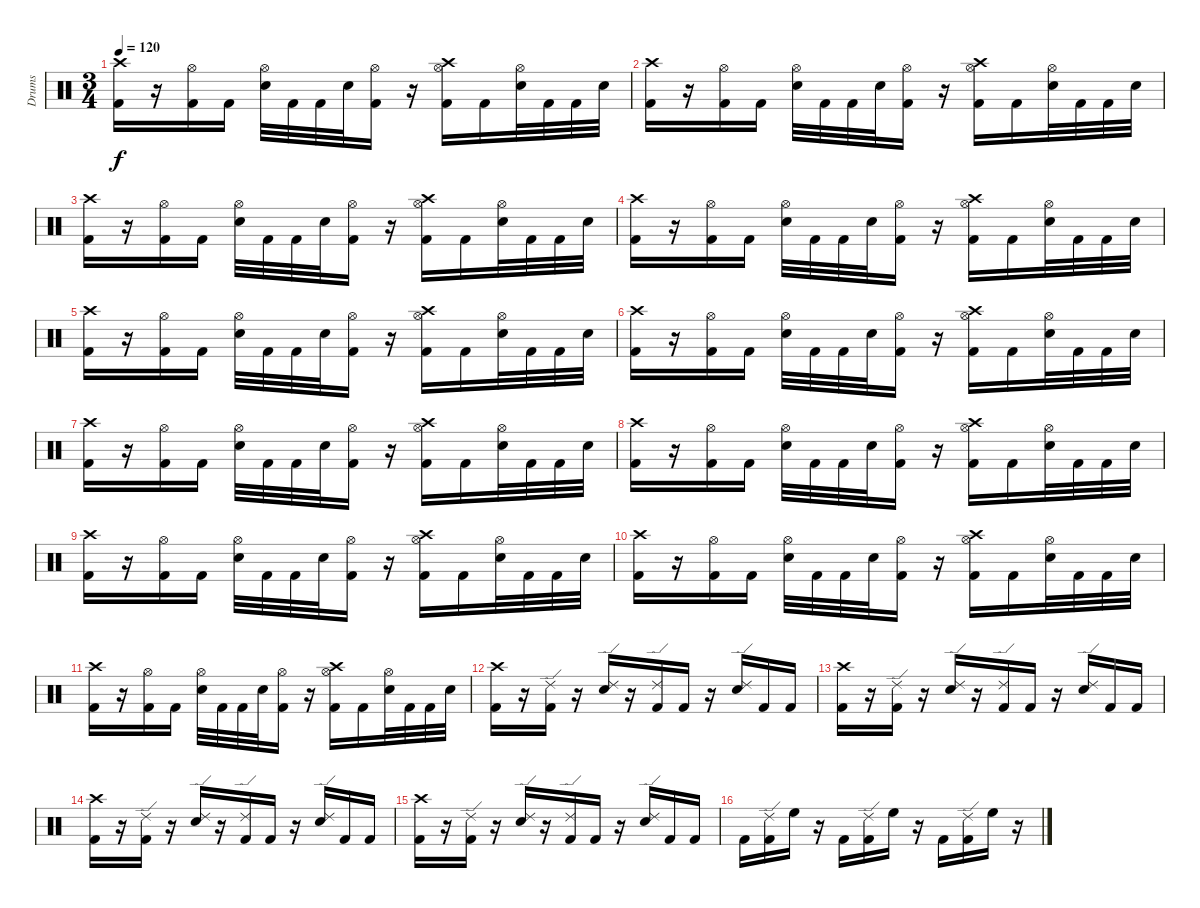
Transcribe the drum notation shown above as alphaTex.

\track ("Drums" "Drums") {instrument percussion}
\staff {score}
\articulation defaults
\ts (3 4)
\tempo 120
\clef neutral
\ks c
("Crash high (hit)" "Kick (hit) 2").16{dy f} r.16 ("Hi-Hat (open)" "Kick (hit) 2").16 "Kick (hit) 2".16 ("Hi-Hat (open)" "Electric Snare (hit)").32 "Kick (hit) 2".32 "Kick (hit) 2".32 "Electric Snare (hit)".32 ("Hi-Hat (open)" "Kick (hit) 2").16 r.16 ("Crash high (hit)" "Hi-Hat (open)" "Kick (hit) 2").16 "Kick (hit) 2".16 ("Hi-Hat (open)" "Electric Snare (hit)").32 "Kick (hit) 2".32 "Kick (hit) 2".32 "Electric Snare (hit)".32 |
("Crash high (hit)" "Kick (hit) 2").16 r.16 ("Hi-Hat (open)" "Kick (hit) 2").16 "Kick (hit) 2".16 ("Hi-Hat (open)" "Electric Snare (hit)").32 "Kick (hit) 2".32 "Kick (hit) 2".32 "Electric Snare (hit)".32 ("Hi-Hat (open)" "Kick (hit) 2").16 r.16 ("Crash high (hit)" "Hi-Hat (open)" "Kick (hit) 2").16 "Kick (hit) 2".16 ("Hi-Hat (open)" "Electric Snare (hit)").32 "Kick (hit) 2".32 "Kick (hit) 2".32 "Electric Snare (hit)".32 |
("Crash high (hit)" "Kick (hit) 2").16 r.16 ("Hi-Hat (open)" "Kick (hit) 2").16 "Kick (hit) 2".16 ("Hi-Hat (open)" "Electric Snare (hit)").32 "Kick (hit) 2".32 "Kick (hit) 2".32 "Electric Snare (hit)".32 ("Hi-Hat (open)" "Kick (hit) 2").16 r.16 ("Crash high (hit)" "Hi-Hat (open)" "Kick (hit) 2").16 "Kick (hit) 2".16 ("Hi-Hat (open)" "Electric Snare (hit)").32 "Kick (hit) 2".32 "Kick (hit) 2".32 "Electric Snare (hit)".32 |
("Crash high (hit)" "Kick (hit) 2").16 r.16 ("Hi-Hat (open)" "Kick (hit) 2").16 "Kick (hit) 2".16 ("Hi-Hat (open)" "Electric Snare (hit)").32 "Kick (hit) 2".32 "Kick (hit) 2".32 "Electric Snare (hit)".32 ("Hi-Hat (open)" "Kick (hit) 2").16 r.16 ("Crash high (hit)" "Hi-Hat (open)" "Kick (hit) 2").16 "Kick (hit) 2".16 ("Hi-Hat (open)" "Electric Snare (hit)").32 "Kick (hit) 2".32 "Kick (hit) 2".32 "Electric Snare (hit)".32 |
("Crash high (hit)" "Kick (hit) 2").16 r.16 ("Hi-Hat (open)" "Kick (hit) 2").16 "Kick (hit) 2".16 ("Hi-Hat (open)" "Electric Snare (hit)").32 "Kick (hit) 2".32 "Kick (hit) 2".32 "Electric Snare (hit)".32 ("Hi-Hat (open)" "Kick (hit) 2").16 r.16 ("Crash high (hit)" "Hi-Hat (open)" "Kick (hit) 2").16 "Kick (hit) 2".16 ("Hi-Hat (open)" "Electric Snare (hit)").32 "Kick (hit) 2".32 "Kick (hit) 2".32 "Electric Snare (hit)".32 |
("Crash high (hit)" "Kick (hit) 2").16 r.16 ("Hi-Hat (open)" "Kick (hit) 2").16 "Kick (hit) 2".16 ("Hi-Hat (open)" "Electric Snare (hit)").32 "Kick (hit) 2".32 "Kick (hit) 2".32 "Electric Snare (hit)".32 ("Hi-Hat (open)" "Kick (hit) 2").16 r.16 ("Crash high (hit)" "Hi-Hat (open)" "Kick (hit) 2").16 "Kick (hit) 2".16 ("Hi-Hat (open)" "Electric Snare (hit)").32 "Kick (hit) 2".32 "Kick (hit) 2".32 "Electric Snare (hit)".32 |
("Crash high (hit)" "Kick (hit) 2").16 r.16 ("Hi-Hat (open)" "Kick (hit) 2").16 "Kick (hit) 2".16 ("Hi-Hat (open)" "Electric Snare (hit)").32 "Kick (hit) 2".32 "Kick (hit) 2".32 "Electric Snare (hit)".32 ("Hi-Hat (open)" "Kick (hit) 2").16 r.16 ("Crash high (hit)" "Hi-Hat (open)" "Kick (hit) 2").16 "Kick (hit) 2".16 ("Hi-Hat (open)" "Electric Snare (hit)").32 "Kick (hit) 2".32 "Kick (hit) 2".32 "Electric Snare (hit)".32 |
("Crash high (hit)" "Kick (hit) 2").16 r.16 ("Hi-Hat (open)" "Kick (hit) 2").16 "Kick (hit) 2".16 ("Hi-Hat (open)" "Electric Snare (hit)").32 "Kick (hit) 2".32 "Kick (hit) 2".32 "Electric Snare (hit)".32 ("Hi-Hat (open)" "Kick (hit) 2").16 r.16 ("Crash high (hit)" "Hi-Hat (open)" "Kick (hit) 2").16 "Kick (hit) 2".16 ("Hi-Hat (open)" "Electric Snare (hit)").32 "Kick (hit) 2".32 "Kick (hit) 2".32 "Electric Snare (hit)".32 |
("Crash high (hit)" "Kick (hit) 2").16 r.16 ("Hi-Hat (open)" "Kick (hit) 2").16 "Kick (hit) 2".16 ("Hi-Hat (open)" "Electric Snare (hit)").32 "Kick (hit) 2".32 "Kick (hit) 2".32 "Electric Snare (hit)".32 ("Hi-Hat (open)" "Kick (hit) 2").16 r.16 ("Crash high (hit)" "Hi-Hat (open)" "Kick (hit) 2").16 "Kick (hit) 2".16 ("Hi-Hat (open)" "Electric Snare (hit)").32 "Kick (hit) 2".32 "Kick (hit) 2".32 "Electric Snare (hit)".32 |
("Crash high (hit)" "Kick (hit) 2").16 r.16 ("Hi-Hat (open)" "Kick (hit) 2").16 "Kick (hit) 2".16 ("Hi-Hat (open)" "Electric Snare (hit)").32 "Kick (hit) 2".32 "Kick (hit) 2".32 "Electric Snare (hit)".32 ("Hi-Hat (open)" "Kick (hit) 2").16 r.16 ("Crash high (hit)" "Hi-Hat (open)" "Kick (hit) 2").16 "Kick (hit) 2".16 ("Hi-Hat (open)" "Electric Snare (hit)").32 "Kick (hit) 2".32 "Kick (hit) 2".32 "Electric Snare (hit)".32 |
("Crash high (hit)" "Kick (hit) 2").16 r.16 ("Hi-Hat (open)" "Kick (hit) 2").16 "Kick (hit) 2".16 ("Hi-Hat (open)" "Electric Snare (hit)").32 "Kick (hit) 2".32 "Kick (hit) 2".32 "Electric Snare (hit)".32 ("Hi-Hat (open)" "Kick (hit) 2").16 r.16 ("Crash high (hit)" "Hi-Hat (open)" "Kick (hit) 2").16 "Kick (hit) 2".16 ("Hi-Hat (open)" "Electric Snare (hit)").32 "Kick (hit) 2".32 "Kick (hit) 2".32 "Electric Snare (hit)".32 |
("Crash high (hit)" "Kick (hit) 2").16 r.16 ("Ride (edge) 2" "Kick (hit) 2").16 r.16 ("Ride (edge) 2" "Electric Snare (hit)").16 r.16 ("Ride (edge) 2" "Kick (hit) 2").16 "Kick (hit) 2".16 r.16 ("Ride (edge) 2" "Electric Snare (hit)").16 "Kick (hit) 2".16 "Kick (hit) 2".16 |
("Crash high (hit)" "Kick (hit) 2").16 r.16 ("Ride (edge) 2" "Kick (hit) 2").16 r.16 ("Ride (edge) 2" "Electric Snare (hit)").16 r.16 ("Ride (edge) 2" "Kick (hit) 2").16 "Kick (hit) 2".16 r.16 ("Ride (edge) 2" "Electric Snare (hit)").16 "Kick (hit) 2".16 "Kick (hit) 2".16 |
("Crash high (hit)" "Kick (hit) 2").16 r.16 ("Ride (edge) 2" "Kick (hit) 2").16 r.16 ("Ride (edge) 2" "Electric Snare (hit)").16 r.16 ("Ride (edge) 2" "Kick (hit) 2").16 "Kick (hit) 2".16 r.16 ("Ride (edge) 2" "Electric Snare (hit)").16 "Kick (hit) 2".16 "Kick (hit) 2".16 |
("Crash high (hit)" "Kick (hit) 2").16 r.16 ("Ride (edge) 2" "Kick (hit) 2").16 r.16 ("Ride (edge) 2" "Electric Snare (hit)").16 r.16 ("Ride (edge) 2" "Kick (hit) 2").16 "Kick (hit) 2".16 r.16 ("Ride (edge) 2" "Electric Snare (hit)").16 "Kick (hit) 2".16 "Kick (hit) 2".16 |
"Kick (hit) 2".16 ("Ride (edge) 2" "Kick (hit) 2").16 "High Floor Tom (hit)".16 r.16 "Kick (hit) 2".16 ("Ride (edge) 2" "Kick (hit) 2").16 "High Floor Tom (hit)".16 r.16 "Kick (hit) 2".16 ("Ride (edge) 2" "Kick (hit) 2").16 "High Floor Tom (hit)".16 r.16
